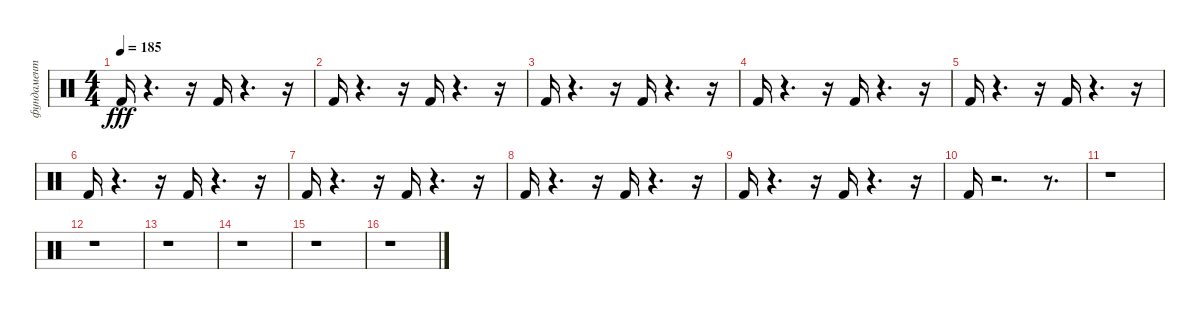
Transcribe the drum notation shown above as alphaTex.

\track ("фундамент" "фундамент") {instrument percussion}
\staff {score}
\articulation defaults
\ts (4 4)
\tempo 185
\clef neutral
\ks c "Kick (hit) 2".16{dy fff}
r.4{d} r.16 "Kick (hit) 2".16 r.4{d} r.16 |
"Kick (hit) 2".16 r.4{d} r.16 "Kick (hit) 2".16 r.4{d} r.16 |
"Kick (hit) 2".16 r.4{d} r.16 "Kick (hit) 2".16 r.4{d} r.16 |
"Kick (hit) 2".16 r.4{d} r.16 "Kick (hit) 2".16 r.4{d} r.16 |
"Kick (hit) 2".16 r.4{d} r.16 "Kick (hit) 2".16 r.4{d} r.16 |
"Kick (hit) 2".16 r.4{d} r.16 "Kick (hit) 2".16 r.4{d} r.16 |
"Kick (hit) 2".16 r.4{d} r.16 "Kick (hit) 2".16 r.4{d} r.16 |
"Kick (hit) 2".16 r.4{d} r.16 "Kick (hit) 2".16 r.4{d} r.16 |
"Kick (hit) 2".16 r.4{d} r.16 "Kick (hit) 2".16 r.4{d} r.16 |
"Kick (hit) 2".16 r.2{d} r.8{d} |
r.1 |
r.1 |
r.1 |
r.1 |
r.1 |
r.1
